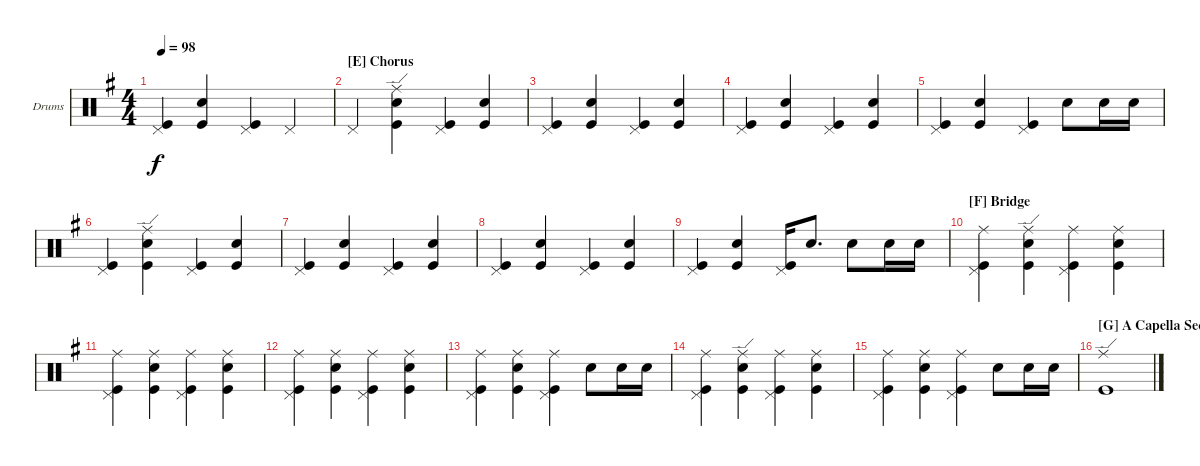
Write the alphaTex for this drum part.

\defaultSystemsLayout 4
\bracketExtendMode groupsimilarinstruments
\firstSystemTrackNameOrientation horizontal
\otherSystemsTrackNameOrientation horizontal
\track ("Matt Helders" "Drums") {multiBarRest instrument percussion}
\staff {score}
\articulation defaults
\ts (4 4)
\tempo 98
\clef neutral
\ks g
("Kick (hit)" "Pedal Hi-Hat (hit)").4{dy f} ("Snare (hit) 2" "Kick (hit)").4 ("Kick (hit)" "Pedal Hi-Hat (hit)").4 "Pedal Hi-Hat (hit)".4 |
\section ("E" "Chorus")
"Pedal Hi-Hat (hit)".4 ("Snare (hit) 2" "Kick (hit)" "Ride (edge)").4 ("Kick (hit)" "Pedal Hi-Hat (hit)").4 ("Snare (hit) 2" "Kick (hit)").4 |
("Kick (hit)" "Pedal Hi-Hat (hit)").4 ("Snare (hit) 2" "Kick (hit)").4 ("Kick (hit)" "Pedal Hi-Hat (hit)").4 ("Snare (hit) 2" "Kick (hit)").4 |
("Kick (hit)" "Pedal Hi-Hat (hit)").4 ("Snare (hit) 2" "Kick (hit)").4 ("Kick (hit)" "Pedal Hi-Hat (hit)").4 ("Snare (hit) 2" "Kick (hit)").4 |
("Kick (hit)" "Pedal Hi-Hat (hit)").4 ("Snare (hit) 2" "Kick (hit)").4 ("Kick (hit)" "Pedal Hi-Hat (hit)").4 "Snare (hit) 2".8 "Snare (hit) 2".16 "Snare (hit) 2".16 |
("Kick (hit)" "Pedal Hi-Hat (hit)").4 ("Snare (hit) 2" "Kick (hit)" "Ride (edge)").4 ("Kick (hit)" "Pedal Hi-Hat (hit)").4 ("Snare (hit) 2" "Kick (hit)").4 |
("Kick (hit)" "Pedal Hi-Hat (hit)").4 ("Snare (hit) 2" "Kick (hit)").4 ("Kick (hit)" "Pedal Hi-Hat (hit)").4 ("Snare (hit) 2" "Kick (hit)").4 |
("Kick (hit)" "Pedal Hi-Hat (hit)").4 ("Snare (hit) 2" "Kick (hit)").4 ("Kick (hit)" "Pedal Hi-Hat (hit)").4 ("Snare (hit) 2" "Kick (hit)").4 |
("Kick (hit)" "Pedal Hi-Hat (hit)").4 ("Snare (hit) 2" "Kick (hit)").4 ("Kick (hit)" "Pedal Hi-Hat (hit)").16 "Snare (hit) 2".8{d} "Snare (hit) 2".8 "Snare (hit) 2".16 "Snare (hit) 2".16 |
\section ("F" "Bridge")
("Kick (hit)" "Pedal Hi-Hat (hit)" "Ride (middle)").4 ("Snare (hit) 2" "Kick (hit)" "Ride (edge)").4 ("Kick (hit)" "Pedal Hi-Hat (hit)" "Ride (middle)").4 ("Snare (hit) 2" "Kick (hit)" "Ride (middle)").4 |
("Kick (hit)" "Pedal Hi-Hat (hit)" "Ride (middle)").4 ("Snare (hit) 2" "Kick (hit)" "Ride (middle)").4 ("Kick (hit)" "Pedal Hi-Hat (hit)" "Ride (middle)").4 ("Snare (hit) 2" "Kick (hit)" "Ride (middle)").4 |
("Kick (hit)" "Pedal Hi-Hat (hit)" "Ride (middle)").4 ("Snare (hit) 2" "Kick (hit)" "Ride (middle)").4 ("Kick (hit)" "Pedal Hi-Hat (hit)" "Ride (middle)").4 ("Snare (hit) 2" "Kick (hit)" "Ride (middle)").4 |
("Kick (hit)" "Pedal Hi-Hat (hit)" "Ride (middle)").4 ("Snare (hit) 2" "Kick (hit)" "Ride (middle)").4 ("Kick (hit)" "Pedal Hi-Hat (hit)" "Ride (middle)").4 "Snare (hit) 2".8 "Snare (hit) 2".16 "Snare (hit) 2".16 |
("Kick (hit)" "Pedal Hi-Hat (hit)" "Ride (middle)").4 ("Snare (hit) 2" "Kick (hit)" "Ride (edge)").4 ("Kick (hit)" "Pedal Hi-Hat (hit)" "Ride (middle)").4 ("Snare (hit) 2" "Kick (hit)" "Ride (middle)").4 |
("Kick (hit)" "Pedal Hi-Hat (hit)" "Ride (middle)").4 ("Snare (hit) 2" "Kick (hit)" "Ride (middle)").4 ("Kick (hit)" "Pedal Hi-Hat (hit)" "Ride (middle)").4 "Snare (hit) 2".8 "Snare (hit) 2".16 "Snare (hit) 2".16 |
\section ("G" "A Capella Section")
("Kick (hit)" "Ride (edge)").1
